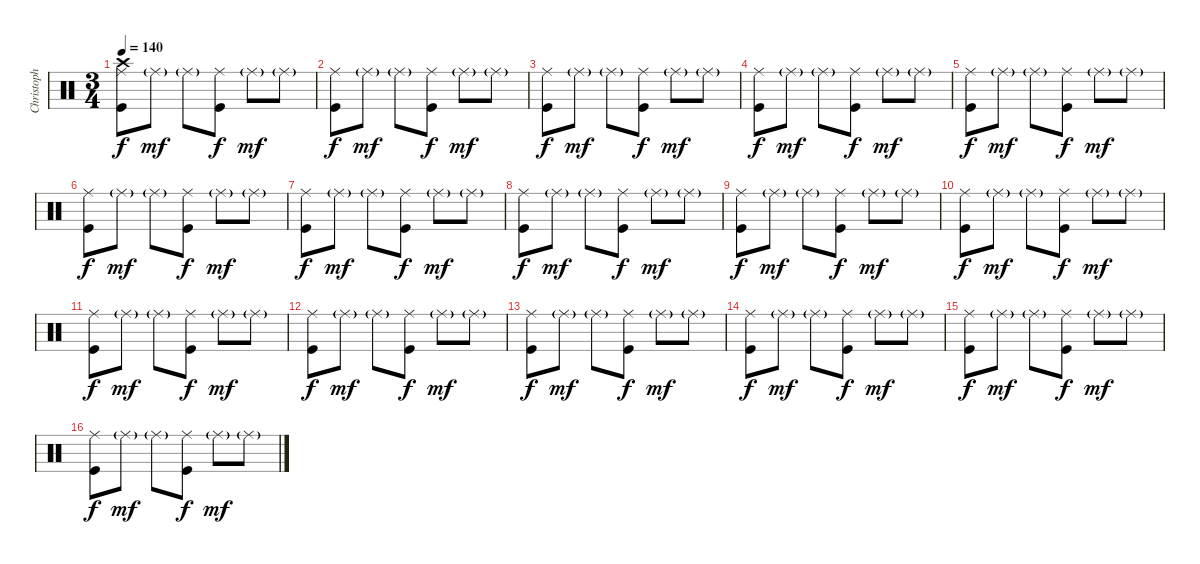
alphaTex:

\track ("Christoph \"Doom\" Schneider" "Christoph ") {instrument percussion}
\staff {score}
\articulation defaults
\ts (3 4)
\tempo 140
\clef neutral
\ks c
("Ride (middle)" "Kick (hit)" "Crash high (hit)").8{dy f} "Ride (middle)"{g}.8{dy mf} "Ride (middle)"{g}.8 ("Ride (middle)" "Kick (hit)").8{dy f} "Ride (middle)"{g}.8{dy mf} "Ride (middle)"{g}.8 |
("Ride (middle)" "Kick (hit)").8{dy f} "Ride (middle)"{g}.8{dy mf} "Ride (middle)"{g}.8 ("Ride (middle)" "Kick (hit)").8{dy f} "Ride (middle)"{g}.8{dy mf} "Ride (middle)"{g}.8 |
("Ride (middle)" "Kick (hit)").8{dy f} "Ride (middle)"{g}.8{dy mf} "Ride (middle)"{g}.8 ("Ride (middle)" "Kick (hit)").8{dy f} "Ride (middle)"{g}.8{dy mf} "Ride (middle)"{g}.8 |
("Ride (middle)" "Kick (hit)").8{dy f} "Ride (middle)"{g}.8{dy mf} "Ride (middle)"{g}.8 ("Ride (middle)" "Kick (hit)").8{dy f} "Ride (middle)"{g}.8{dy mf} "Ride (middle)"{g}.8 |
("Ride (middle)" "Kick (hit)").8{dy f} "Ride (middle)"{g}.8{dy mf} "Ride (middle)"{g}.8 ("Ride (middle)" "Kick (hit)").8{dy f} "Ride (middle)"{g}.8{dy mf} "Ride (middle)"{g}.8 |
("Ride (middle)" "Kick (hit)").8{dy f} "Ride (middle)"{g}.8{dy mf} "Ride (middle)"{g}.8 ("Ride (middle)" "Kick (hit)").8{dy f} "Ride (middle)"{g}.8{dy mf} "Ride (middle)"{g}.8 |
("Ride (middle)" "Kick (hit)").8{dy f} "Ride (middle)"{g}.8{dy mf} "Ride (middle)"{g}.8 ("Ride (middle)" "Kick (hit)").8{dy f} "Ride (middle)"{g}.8{dy mf} "Ride (middle)"{g}.8 |
("Ride (middle)" "Kick (hit)").8{dy f} "Ride (middle)"{g}.8{dy mf} "Ride (middle)"{g}.8 ("Ride (middle)" "Kick (hit)").8{dy f} "Ride (middle)"{g}.8{dy mf} "Ride (middle)"{g}.8 |
("Ride (middle)" "Kick (hit)").8{dy f} "Ride (middle)"{g}.8{dy mf} "Ride (middle)"{g}.8 ("Ride (middle)" "Kick (hit)").8{dy f} "Ride (middle)"{g}.8{dy mf} "Ride (middle)"{g}.8 |
("Ride (middle)" "Kick (hit)").8{dy f} "Ride (middle)"{g}.8{dy mf} "Ride (middle)"{g}.8 ("Ride (middle)" "Kick (hit)").8{dy f} "Ride (middle)"{g}.8{dy mf} "Ride (middle)"{g}.8 |
("Ride (middle)" "Kick (hit)").8{dy f} "Ride (middle)"{g}.8{dy mf} "Ride (middle)"{g}.8 ("Ride (middle)" "Kick (hit)").8{dy f} "Ride (middle)"{g}.8{dy mf} "Ride (middle)"{g}.8 |
("Ride (middle)" "Kick (hit)").8{dy f} "Ride (middle)"{g}.8{dy mf} "Ride (middle)"{g}.8 ("Ride (middle)" "Kick (hit)").8{dy f} "Ride (middle)"{g}.8{dy mf} "Ride (middle)"{g}.8 |
("Ride (middle)" "Kick (hit)").8{dy f} "Ride (middle)"{g}.8{dy mf} "Ride (middle)"{g}.8 ("Ride (middle)" "Kick (hit)").8{dy f} "Ride (middle)"{g}.8{dy mf} "Ride (middle)"{g}.8 |
("Ride (middle)" "Kick (hit)").8{dy f} "Ride (middle)"{g}.8{dy mf} "Ride (middle)"{g}.8 ("Ride (middle)" "Kick (hit)").8{dy f} "Ride (middle)"{g}.8{dy mf} "Ride (middle)"{g}.8 |
("Ride (middle)" "Kick (hit)").8{dy f} "Ride (middle)"{g}.8{dy mf} "Ride (middle)"{g}.8 ("Ride (middle)" "Kick (hit)").8{dy f} "Ride (middle)"{g}.8{dy mf} "Ride (middle)"{g}.8 |
("Ride (middle)" "Kick (hit)").8{dy f} "Ride (middle)"{g}.8{dy mf} "Ride (middle)"{g}.8 ("Ride (middle)" "Kick (hit)").8{dy f} "Ride (middle)"{g}.8{dy mf} "Ride (middle)"{g}.8
